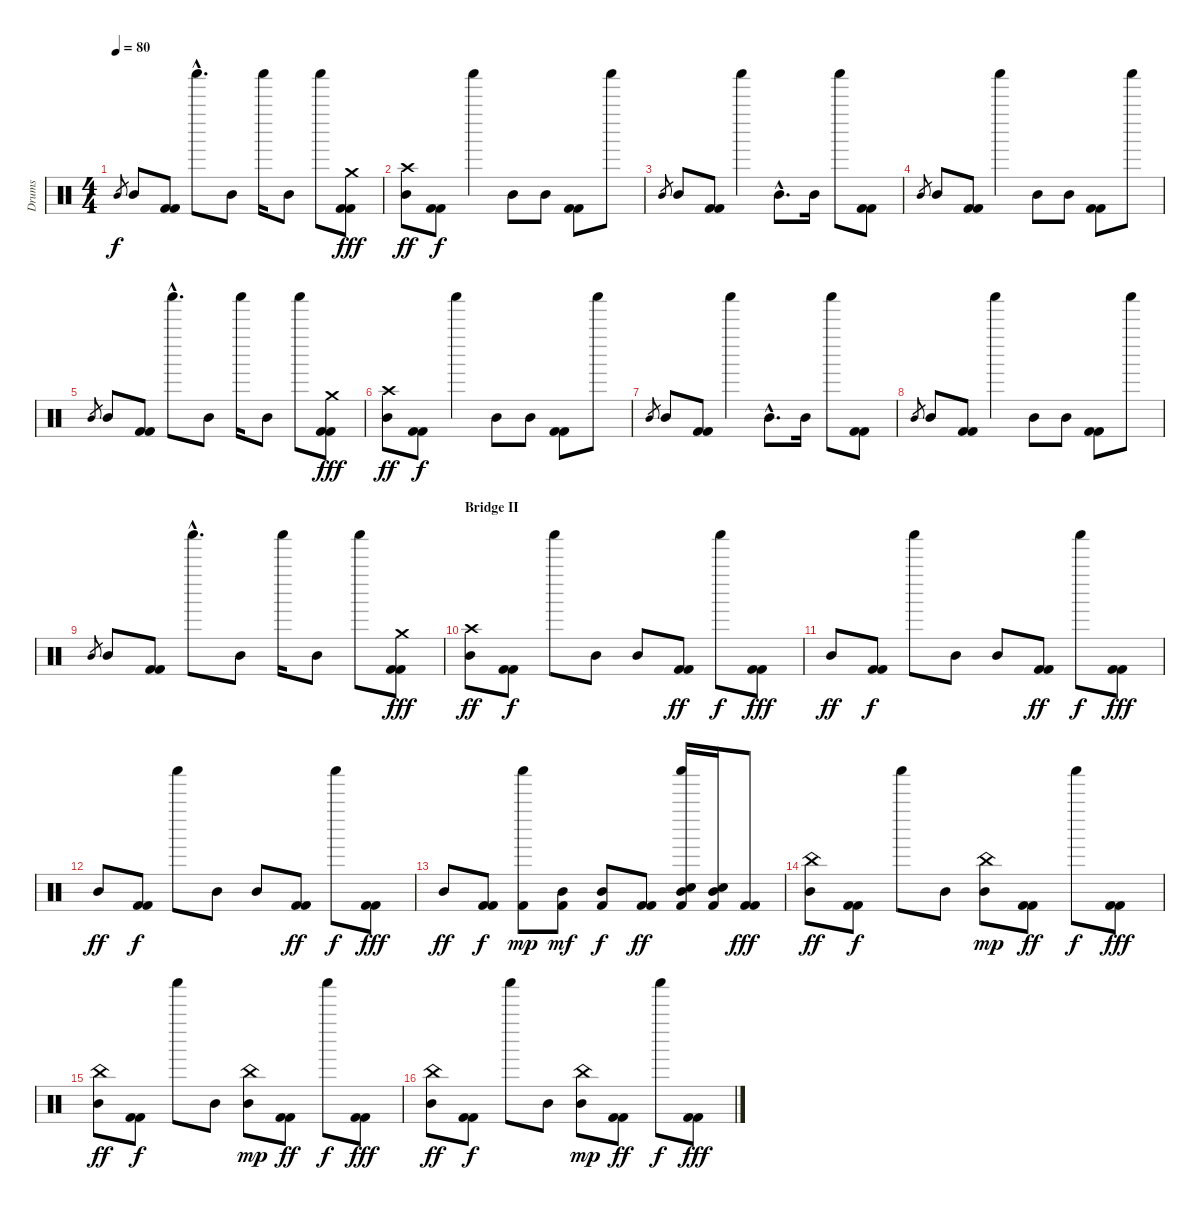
\track ("Drums" "Drums") {instrument percussion}
\staff {score}
\articulation defaults
\ts (4 4)
\tempo 80
\clef neutral
\ks c "Mid Tom (hit)".8{gr dy f} "Mid Tom (hit)".8
("Kick (hit) 2" "Kick (hit) 2").8 "Shaker (hit)"{hac}.8{d} "Mid Tom (hit)".8 "Shaker (hit)".16 "Mid Tom (hit)".8 "Shaker (hit)".8 ("Crash medium (hit)" "Kick (hit) 2" "Kick (hit) 2").8{dy fff} |
("Crash high (hit)" "Mid Tom (hit)").8{bd 60 dy ff} ("Kick (hit) 2" "Kick (hit) 2").8{dy f} "Shaker (hit)".4 "Mid Tom (hit)".8 "Mid Tom (hit)".8 ("Kick (hit) 2" "Kick (hit) 2").8 "Shaker (hit)".8 |
"Mid Tom (hit)".8{gr} "Mid Tom (hit)".8 ("Kick (hit) 2" "Kick (hit) 2").8 "Shaker (hit)".4 "Mid Tom (hit)"{hac}.8{d} "Mid Tom (hit)".16 "Shaker (hit)".8 ("Kick (hit) 2" "Kick (hit) 2").8 |
"Mid Tom (hit)".8{gr} "Mid Tom (hit)".8 ("Kick (hit) 2" "Kick (hit) 2").8 "Shaker (hit)".4 "Mid Tom (hit)".8 "Mid Tom (hit)".8 ("Kick (hit) 2" "Kick (hit) 2").8 "Shaker (hit)".8 |
"Mid Tom (hit)".8{gr} "Mid Tom (hit)".8 ("Kick (hit) 2" "Kick (hit) 2").8 "Shaker (hit)"{hac}.8{d} "Mid Tom (hit)".8 "Shaker (hit)".16 "Mid Tom (hit)".8 "Shaker (hit)".8 ("Crash medium (hit)" "Kick (hit) 2" "Kick (hit) 2").8{dy fff} |
("Crash high (hit)" "Mid Tom (hit)").8{bd 60 dy ff} ("Kick (hit) 2" "Kick (hit) 2").8{dy f} "Shaker (hit)".4 "Mid Tom (hit)".8 "Mid Tom (hit)".8 ("Kick (hit) 2" "Kick (hit) 2").8 "Shaker (hit)".8 |
"Mid Tom (hit)".8{gr} "Mid Tom (hit)".8 ("Kick (hit) 2" "Kick (hit) 2").8 "Shaker (hit)".4 "Mid Tom (hit)"{hac}.8{d} "Mid Tom (hit)".16 "Shaker (hit)".8 ("Kick (hit) 2" "Kick (hit) 2").8 |
"Mid Tom (hit)".8{gr} "Mid Tom (hit)".8 ("Kick (hit) 2" "Kick (hit) 2").8 "Shaker (hit)".4 "Mid Tom (hit)".8 "Mid Tom (hit)".8 ("Kick (hit) 2" "Kick (hit) 2").8 "Shaker (hit)".8 |
"Mid Tom (hit)".8{gr} "Mid Tom (hit)".8 ("Kick (hit) 2" "Kick (hit) 2").8 "Shaker (hit)"{hac}.8{d} "Mid Tom (hit)".8 "Shaker (hit)".16 "Mid Tom (hit)".8 "Shaker (hit)".8 ("Crash medium (hit)" "Kick (hit) 2" "Kick (hit) 2").8{dy fff} |
\section ("" "Bridge II")
("Crash high (hit)" "Mid Tom (hit)").8{dy ff} ("Kick (hit) 2" "Kick (hit) 2").8{dy f} "Shaker (hit)".8 "Mid Tom (hit)".8 "Mid Tom (hit)".8 ("Kick (hit) 2" "Kick (hit) 2").8{dy ff} "Shaker (hit)".8{dy f} ("Kick (hit) 2" "Kick (hit) 2").8{dy fff} |
"Mid Tom (hit)".8{bd 60 dy ff} ("Kick (hit) 2" "Kick (hit) 2").8{dy f} "Shaker (hit)".8 "Mid Tom (hit)".8 "Mid Tom (hit)".8 ("Kick (hit) 2" "Kick (hit) 2").8{dy ff} "Shaker (hit)".8{dy f} ("Kick (hit) 2" "Kick (hit) 2").8{dy fff} |
"Mid Tom (hit)".8{bd 60 dy ff} ("Kick (hit) 2" "Kick (hit) 2").8{dy f} "Shaker (hit)".8 "Mid Tom (hit)".8 "Mid Tom (hit)".8 ("Kick (hit) 2" "Kick (hit) 2").8{dy ff} "Shaker (hit)".8{dy f} ("Kick (hit) 2" "Kick (hit) 2").8{dy fff} |
"Mid Tom (hit)".8{bd 60 dy ff} ("Kick (hit) 2" "Kick (hit) 2").8{dy f} ("Shaker (hit)" "Kick (hit) 2").8{dy mp} ("Mid Tom (hit)" "Kick (hit) 2").8{dy mf} ("Mid Tom (hit)" "Kick (hit) 2").8{dy f} ("Kick (hit) 2" "Kick (hit) 2").8{dy ff} ("Shaker (hit)" "Mid Tom (hit)" "Electric Snare (hit)" "Kick (hit) 2").16 ("Mid Tom (hit)" "Electric Snare (hit)" "Kick (hit) 2").16 ("Kick (hit) 2" "Kick (hit) 2").8{dy fff} |
("China (hit)" "Mid Tom (hit)").8{dy ff} ("Kick (hit) 2" "Kick (hit) 2").8{dy f} "Shaker (hit)".8 "Mid Tom (hit)".8 ("China (hit)" "Mid Tom (hit)").8{dy mp} ("Kick (hit) 2" "Kick (hit) 2").8{dy ff} "Shaker (hit)".8{dy f} ("Kick (hit) 2" "Kick (hit) 2").8{dy fff} |
("China (hit)" "Mid Tom (hit)").8{bd 60 dy ff} ("Kick (hit) 2" "Kick (hit) 2").8{dy f} "Shaker (hit)".8 "Mid Tom (hit)".8 ("China (hit)" "Mid Tom (hit)").8{dy mp} ("Kick (hit) 2" "Kick (hit) 2").8{dy ff} "Shaker (hit)".8{dy f} ("Kick (hit) 2" "Kick (hit) 2").8{dy fff} |
("China (hit)" "Mid Tom (hit)").8{bd 60 dy ff} ("Kick (hit) 2" "Kick (hit) 2").8{dy f} "Shaker (hit)".8 "Mid Tom (hit)".8 ("China (hit)" "Mid Tom (hit)").8{dy mp} ("Kick (hit) 2" "Kick (hit) 2").8{dy ff} "Shaker (hit)".8{dy f} ("Kick (hit) 2" "Kick (hit) 2").8{dy fff}
